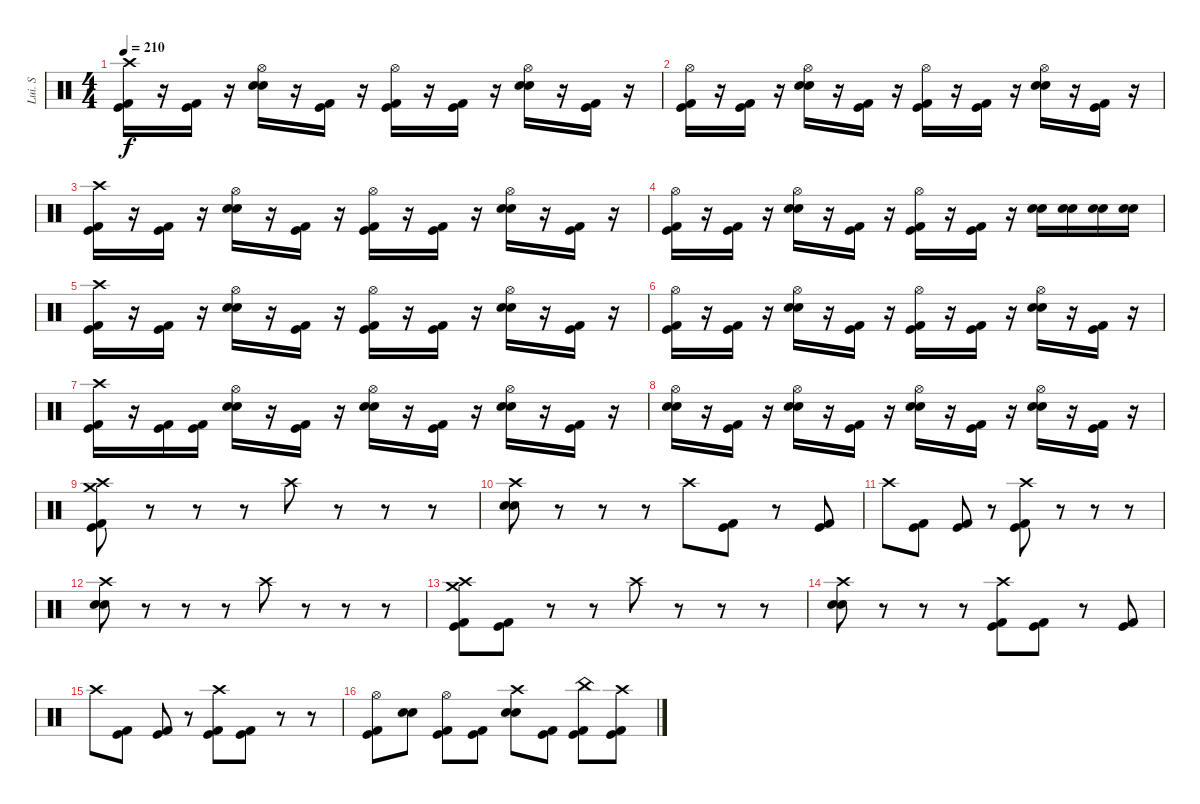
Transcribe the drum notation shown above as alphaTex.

\track ("Lui. S" "Lui. S") {instrument percussion}
\staff {score}
\articulation defaults
\ts (4 4)
\tempo 210
\clef neutral
\ks c
("Crash high (hit)" "Kick (hit)" "Kick (hit) 2").16{dy f} r.16 ("Kick (hit) 2" "Kick (hit)").16 r.16 ("Hi-Hat (open)" "Electric Snare (hit)" "Snare (hit) 2").16 r.16 ("Kick (hit) 2" "Kick (hit)").16 r.16 ("Hi-Hat (open)" "Kick (hit) 2" "Kick (hit)").16 r.16 ("Kick (hit) 2" "Kick (hit)").16 r.16 ("Hi-Hat (open)" "Electric Snare (hit)" "Snare (hit) 2").16 r.16 ("Kick (hit)" "Kick (hit) 2").16 r.16 |
("Hi-Hat (open)" "Kick (hit)" "Kick (hit) 2").16 r.16 ("Kick (hit) 2" "Kick (hit)").16 r.16 ("Hi-Hat (open)" "Electric Snare (hit)" "Snare (hit) 2").16 r.16 ("Kick (hit) 2" "Kick (hit)").16 r.16 ("Hi-Hat (open)" "Kick (hit) 2" "Kick (hit)").16 r.16 ("Kick (hit) 2" "Kick (hit)").16 r.16 ("Hi-Hat (open)" "Electric Snare (hit)" "Snare (hit) 2").16 r.16 ("Kick (hit)" "Kick (hit) 2").16 r.16 |
("Crash high (hit)" "Kick (hit)" "Kick (hit) 2").16 r.16 ("Kick (hit) 2" "Kick (hit)").16 r.16 ("Hi-Hat (open)" "Electric Snare (hit)" "Snare (hit) 2").16 r.16 ("Kick (hit) 2" "Kick (hit)").16 r.16 ("Hi-Hat (open)" "Kick (hit) 2" "Kick (hit)").16 r.16 ("Kick (hit) 2" "Kick (hit)").16 r.16 ("Hi-Hat (open)" "Electric Snare (hit)" "Snare (hit) 2").16 r.16 ("Kick (hit)" "Kick (hit) 2").16 r.16 |
("Hi-Hat (open)" "Kick (hit)" "Kick (hit) 2").16 r.16 ("Kick (hit) 2" "Kick (hit)").16 r.16 ("Hi-Hat (open)" "Electric Snare (hit)" "Snare (hit) 2").16 r.16 ("Kick (hit) 2" "Kick (hit)").16 r.16 ("Hi-Hat (open)" "Kick (hit) 2" "Kick (hit)").16 r.16 ("Kick (hit) 2" "Kick (hit)").16 r.16 ("Electric Snare (hit)" "Snare (hit) 2").16 ("Electric Snare (hit)" "Snare (hit) 2").16 ("Electric Snare (hit)" "Snare (hit) 2").16 ("Electric Snare (hit)" "Snare (hit) 2").16 |
("Crash high (hit)" "Kick (hit)" "Kick (hit) 2").16 r.16 ("Kick (hit) 2" "Kick (hit)").16 r.16 ("Hi-Hat (open)" "Electric Snare (hit)" "Snare (hit) 2").16 r.16 ("Kick (hit) 2" "Kick (hit)").16 r.16 ("Hi-Hat (open)" "Kick (hit) 2" "Kick (hit)").16 r.16 ("Kick (hit) 2" "Kick (hit)").16 r.16 ("Hi-Hat (open)" "Electric Snare (hit)" "Snare (hit) 2").16 r.16 ("Kick (hit)" "Kick (hit) 2").16 r.16 |
("Hi-Hat (open)" "Kick (hit)" "Kick (hit) 2").16 r.16 ("Kick (hit) 2" "Kick (hit)").16 r.16 ("Hi-Hat (open)" "Electric Snare (hit)" "Snare (hit) 2").16 r.16 ("Kick (hit) 2" "Kick (hit)").16 r.16 ("Hi-Hat (open)" "Kick (hit) 2" "Kick (hit)").16 r.16 ("Kick (hit) 2" "Kick (hit)").16 r.16 ("Hi-Hat (open)" "Electric Snare (hit)" "Snare (hit) 2").16 r.16 ("Kick (hit)" "Kick (hit) 2").16 r.16 |
("Crash high (hit)" "Kick (hit)" "Kick (hit) 2").16 r.16 ("Kick (hit) 2" "Kick (hit)").16 ("Kick (hit) 2" "Kick (hit)").16 ("Hi-Hat (open)" "Electric Snare (hit)" "Snare (hit) 2").16 r.16 ("Kick (hit) 2" "Kick (hit)").16 r.16 ("Hi-Hat (open)" "Electric Snare (hit)" "Snare (hit) 2").16 r.16 ("Kick (hit) 2" "Kick (hit)").16 r.16 ("Hi-Hat (open)" "Electric Snare (hit)" "Snare (hit) 2").16 r.16 ("Kick (hit) 2" "Kick (hit)").16 r.16 |
("Hi-Hat (open)" "Electric Snare (hit)" "Snare (hit) 2").16 r.16 ("Kick (hit) 2" "Kick (hit)").16 r.16 ("Hi-Hat (open)" "Electric Snare (hit)" "Snare (hit) 2").16 r.16 ("Kick (hit) 2" "Kick (hit)").16 r.16 ("Hi-Hat (open)" "Electric Snare (hit)" "Snare (hit) 2").16 r.16 ("Kick (hit) 2" "Kick (hit)").16 r.16 ("Hi-Hat (open)" "Snare (hit) 2" "Electric Snare (hit)").16 r.16 ("Kick (hit) 2" "Kick (hit)").16 r.16 |
("Crash medium (hit)" "Crash high (hit)" "Kick (hit) 2" "Kick (hit)").8 r.8 r.8 r.8 "Crash high (hit)".8 r.8 r.8 r.8 |
("Crash high (hit)" "Electric Snare (hit)" "Snare (hit) 2").8 r.8 r.8 r.8 "Crash high (hit)".8 ("Kick (hit)" "Kick (hit) 2").8 r.8 ("Kick (hit) 2" "Kick (hit)").8 |
"Crash high (hit)".8 ("Kick (hit) 2" "Kick (hit)").8 ("Kick (hit) 2" "Kick (hit)").8 r.8 ("Crash high (hit)" "Kick (hit) 2" "Kick (hit)").8 r.8 r.8 r.8 |
("Crash high (hit)" "Snare (hit) 2" "Electric Snare (hit)").8 r.8 r.8 r.8 "Crash high (hit)".8 r.8 r.8 r.8 |
("Crash medium (hit)" "Crash high (hit)" "Kick (hit) 2" "Kick (hit)").8 ("Kick (hit) 2" "Kick (hit)").8 r.8 r.8 "Crash high (hit)".8 r.8 r.8 r.8 |
("Crash high (hit)" "Electric Snare (hit)" "Snare (hit) 2").8 r.8 r.8 r.8 ("Crash high (hit)" "Kick (hit) 2" "Kick (hit)").8 ("Kick (hit) 2" "Kick (hit)").8 r.8 ("Kick (hit) 2" "Kick (hit)").8 |
"Crash high (hit)".8 ("Kick (hit) 2" "Kick (hit)").8 ("Kick (hit) 2" "Kick (hit)").8 r.8 ("Crash high (hit)" "Kick (hit) 2" "Kick (hit)").8 ("Kick (hit) 2" "Kick (hit)").8 r.8 r.8 |
("Hi-Hat (open)" "Kick (hit) 2" "Kick (hit)").8 ("Electric Snare (hit)" "Snare (hit) 2").8 ("Hi-Hat (open)" "Kick (hit) 2" "Kick (hit)").8 ("Kick (hit) 2" "Kick (hit)").8 ("Crash high (hit)" "Electric Snare (hit)" "Snare (hit) 2").8 ("Kick (hit) 2" "Kick (hit)").8 ("China (hit)" "Kick (hit) 2" "Kick (hit)").8 ("Crash high (hit)" "Kick (hit) 2" "Kick (hit)").8
